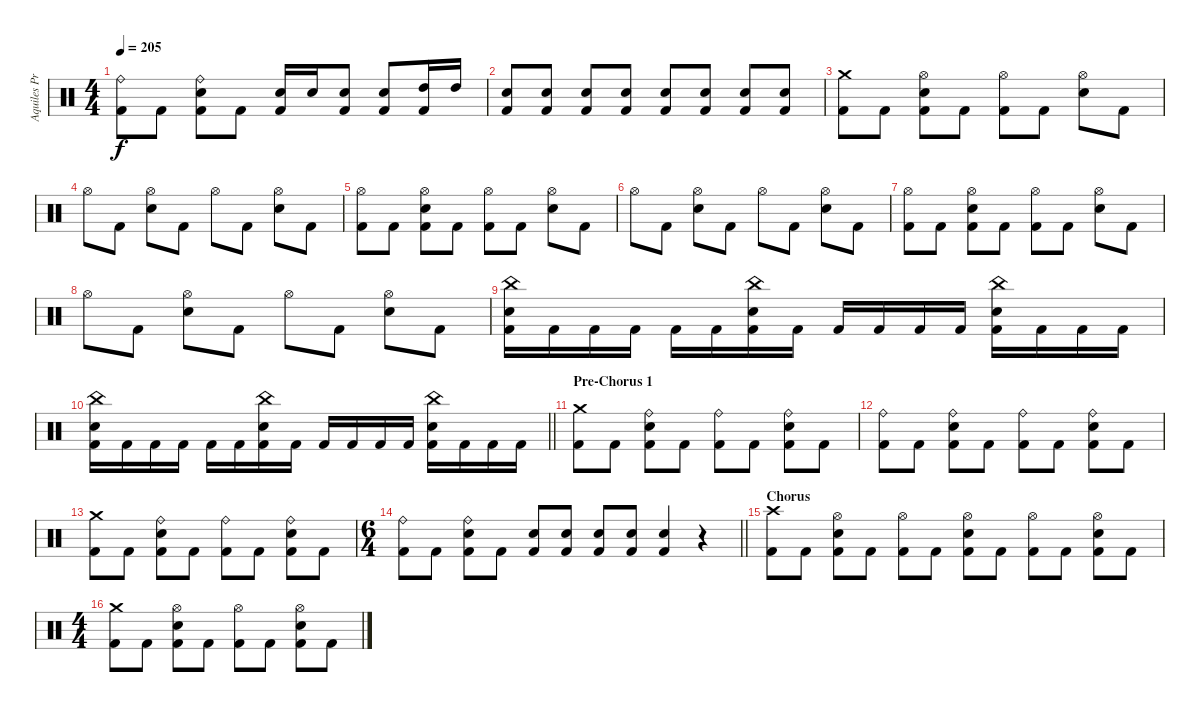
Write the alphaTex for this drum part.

\track ("Aquiles Priester" "Aquiles Pr") {instrument percussion}
\staff {score}
\articulation defaults
\ts (4 4)
\tempo 205
\clef neutral
\ks c
("Ride (bell)" "Kick (hit) 2").8{dy f} "Kick (hit) 2".8 ("Ride (bell)" "Electric Snare (hit)" "Kick (hit) 2").8 "Kick (hit) 2".8 ("Electric Snare (hit)" "Kick (hit) 2").16 "Electric Snare (hit)".16 ("Electric Snare (hit)" "Kick (hit) 2").8 ("Electric Snare (hit)" "Kick (hit) 2").8 ("High Tom (hit)" "Kick (hit) 2").16 "High Tom (hit)".16 |
("Electric Snare (hit)" "Kick (hit) 2").8 ("Electric Snare (hit)" "Kick (hit) 2").8 ("Electric Snare (hit)" "Kick (hit) 2").8 ("Electric Snare (hit)" "Kick (hit) 2").8 ("Electric Snare (hit)" "Kick (hit) 2").8 ("Electric Snare (hit)" "Kick (hit) 2").8 ("Electric Snare (hit)" "Kick (hit) 2").8 ("Electric Snare (hit)" "Kick (hit) 2").8 |
("Crash medium (hit)" "Kick (hit) 2").8 "Kick (hit) 2".8 ("Hi-Hat (open)" "Electric Snare (hit)" "Kick (hit) 2").8 "Kick (hit) 2".8 ("Hi-Hat (open)" "Kick (hit) 2").8 "Kick (hit) 2".8 ("Hi-Hat (open)" "Electric Snare (hit)").8 "Kick (hit) 2".8 |
"Hi-Hat (open)".8 "Kick (hit) 2".8 ("Hi-Hat (open)" "Electric Snare (hit)").8 "Kick (hit) 2".8 "Hi-Hat (open)".8 "Kick (hit) 2".8 ("Hi-Hat (open)" "Electric Snare (hit)").8 "Kick (hit) 2".8 |
("Hi-Hat (open)" "Kick (hit) 2").8 "Kick (hit) 2".8 ("Hi-Hat (open)" "Electric Snare (hit)" "Kick (hit) 2").8 "Kick (hit) 2".8 ("Hi-Hat (open)" "Kick (hit) 2").8 "Kick (hit) 2".8 ("Hi-Hat (open)" "Electric Snare (hit)").8 "Kick (hit) 2".8 |
"Hi-Hat (open)".8 "Kick (hit) 2".8 ("Hi-Hat (open)" "Electric Snare (hit)").8 "Kick (hit) 2".8 "Hi-Hat (open)".8 "Kick (hit) 2".8 ("Hi-Hat (open)" "Electric Snare (hit)").8 "Kick (hit) 2".8 |
("Hi-Hat (open)" "Kick (hit) 2").8 "Kick (hit) 2".8 ("Hi-Hat (open)" "Electric Snare (hit)" "Kick (hit) 2").8 "Kick (hit) 2".8 ("Hi-Hat (open)" "Kick (hit) 2").8 "Kick (hit) 2".8 ("Hi-Hat (open)" "Electric Snare (hit)").8 "Kick (hit) 2".8 |
"Hi-Hat (open)".8 "Kick (hit) 2".8 ("Hi-Hat (open)" "Electric Snare (hit)").8 "Kick (hit) 2".8 "Hi-Hat (open)".8 "Kick (hit) 2".8 ("Hi-Hat (open)" "Electric Snare (hit)").8 "Kick (hit) 2".8 |
("China (hit)" "Electric Snare (hit)" "Kick (hit) 2").16 "Kick (hit) 2".16 "Kick (hit) 2".16 "Kick (hit) 2".16 "Kick (hit) 2".16 "Kick (hit) 2".16 ("China (hit)" "Electric Snare (hit)" "Kick (hit) 2").16 "Kick (hit) 2".16 "Kick (hit) 2".16 "Kick (hit) 2".16 "Kick (hit) 2".16 "Kick (hit) 2".16 ("China (hit)" "Electric Snare (hit)" "Kick (hit) 2").16 "Kick (hit) 2".16 "Kick (hit) 2".16 "Kick (hit) 2".16 |
\barLineRight lightlight
("China (hit)" "Electric Snare (hit)" "Kick (hit) 2").16 "Kick (hit) 2".16 "Kick (hit) 2".16 "Kick (hit) 2".16 "Kick (hit) 2".16 "Kick (hit) 2".16 ("China (hit)" "Electric Snare (hit)" "Kick (hit) 2").16 "Kick (hit) 2".16 "Kick (hit) 2".16 "Kick (hit) 2".16 "Kick (hit) 2".16 "Kick (hit) 2".16 ("China (hit)" "Electric Snare (hit)" "Kick (hit) 2").16 "Kick (hit) 2".16 "Kick (hit) 2".16 "Kick (hit) 2".16 |
\section ("" "Pre-Chorus 1")
("Crash medium (hit)" "Kick (hit) 2").8 "Kick (hit) 2".8 ("Ride (bell)" "Electric Snare (hit)" "Kick (hit) 2").8 "Kick (hit) 2".8 ("Ride (bell)" "Kick (hit) 2").8 "Kick (hit) 2".8 ("Ride (bell)" "Electric Snare (hit)" "Kick (hit) 2").8 "Kick (hit) 2".8 |
("Ride (bell)" "Kick (hit) 2").8 "Kick (hit) 2".8 ("Ride (bell)" "Electric Snare (hit)" "Kick (hit) 2").8 "Kick (hit) 2".8 ("Ride (bell)" "Kick (hit) 2").8 "Kick (hit) 2".8 ("Ride (bell)" "Electric Snare (hit)" "Kick (hit) 2").8 "Kick (hit) 2".8 |
("Crash medium (hit)" "Kick (hit) 2").8 "Kick (hit) 2".8 ("Ride (bell)" "Electric Snare (hit)" "Kick (hit) 2").8 "Kick (hit) 2".8 ("Ride (bell)" "Kick (hit) 2").8 "Kick (hit) 2".8 ("Ride (bell)" "Electric Snare (hit)" "Kick (hit) 2").8 "Kick (hit) 2".8 |
\ts (6 4)
\barLineRight lightlight
("Ride (bell)" "Kick (hit) 2").8 "Kick (hit) 2".8 ("Ride (bell)" "Electric Snare (hit)" "Kick (hit) 2").8 "Kick (hit) 2".8 ("Electric Snare (hit)" "Kick (hit) 2").8 ("Electric Snare (hit)" "Kick (hit) 2").8 ("Electric Snare (hit)" "Kick (hit) 2").8 ("Electric Snare (hit)" "Kick (hit) 2").8 ("Electric Snare (hit)" "Kick (hit) 2").4 r.4 |
\section ("" "Chorus")
("Crash high (hit)" "Kick (hit) 2").8 "Kick (hit) 2".8 ("Hi-Hat (open)" "Electric Snare (hit)" "Kick (hit) 2").8 "Kick (hit) 2".8 ("Hi-Hat (open)" "Kick (hit) 2").8 "Kick (hit) 2".8 ("Hi-Hat (open)" "Electric Snare (hit)" "Kick (hit) 2").8 "Kick (hit) 2".8 ("Hi-Hat (open)" "Kick (hit) 2").8 "Kick (hit) 2".8 ("Hi-Hat (open)" "Electric Snare (hit)" "Kick (hit) 2").8 "Kick (hit) 2".8 |
\ts (4 4)
("Crash medium (hit)" "Kick (hit) 2").8 "Kick (hit) 2".8 ("Hi-Hat (open)" "Electric Snare (hit)" "Kick (hit) 2").8 "Kick (hit) 2".8 ("Hi-Hat (open)" "Kick (hit) 2").8 "Kick (hit) 2".8 ("Hi-Hat (open)" "Electric Snare (hit)" "Kick (hit) 2").8 "Kick (hit) 2".8
